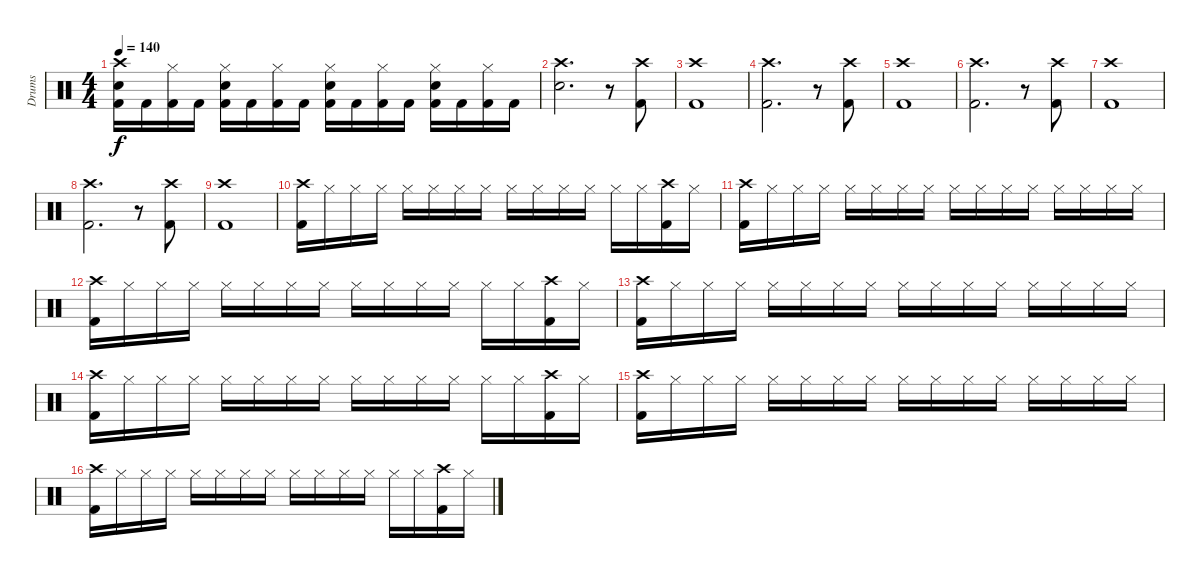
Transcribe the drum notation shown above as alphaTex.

\track ("Drums" "Drums") {instrument percussion}
\staff {score}
\articulation defaults
\ts (4 4)
\tempo 140
\clef neutral
\ks c
("Crash high (hit)" "Snare (hit) 2" "Kick (hit) 2").16{dy f} "Kick (hit) 2".16 ("Hi-Hat (closed)" "Kick (hit) 2").16 "Kick (hit) 2".16 ("Hi-Hat (closed)" "Snare (hit) 2" "Kick (hit) 2").16 "Kick (hit) 2".16 ("Hi-Hat (closed)" "Kick (hit) 2").16 "Kick (hit) 2".16 ("Hi-Hat (closed)" "Snare (hit) 2" "Kick (hit) 2").16 "Kick (hit) 2".16 ("Hi-Hat (closed)" "Kick (hit) 2").16 "Kick (hit) 2".16 ("Hi-Hat (closed)" "Snare (hit) 2" "Kick (hit) 2").16 "Kick (hit) 2".16 ("Hi-Hat (closed)" "Kick (hit) 2").16 "Kick (hit) 2".16 |
("Crash high (hit)" "Snare (hit) 2").2{d} r.8 ("Crash high (hit)" "Kick (hit) 2").8 |
("Crash high (hit)" "Kick (hit) 2").1 |
("Crash high (hit)" "Kick (hit) 2").2{d} r.8 ("Crash high (hit)" "Kick (hit) 2").8 |
("Crash high (hit)" "Kick (hit) 2").1 |
("Crash high (hit)" "Kick (hit) 2").2{d} r.8 ("Crash high (hit)" "Kick (hit) 2").8 |
("Crash high (hit)" "Kick (hit) 2").1 |
("Crash high (hit)" "Kick (hit) 2").2{d} r.8 ("Crash high (hit)" "Kick (hit) 2").8 |
("Crash high (hit)" "Kick (hit) 2").1 |
("Crash high (hit)" "Kick (hit) 2").16 "Hi-Hat (closed)".16 "Hi-Hat (closed)".16 "Hi-Hat (closed)".16 "Hi-Hat (closed)".16 "Hi-Hat (closed)".16 "Hi-Hat (closed)".16 "Hi-Hat (closed)".16 "Hi-Hat (closed)".16 "Hi-Hat (closed)".16 "Hi-Hat (closed)".16 "Hi-Hat (closed)".16 "Hi-Hat (closed)".16 "Hi-Hat (closed)".16 ("Crash high (hit)" "Kick (hit) 2").16 "Hi-Hat (closed)".16 |
("Crash high (hit)" "Kick (hit) 2").16 "Hi-Hat (closed)".16 "Hi-Hat (closed)".16 "Hi-Hat (closed)".16 "Hi-Hat (closed)".16 "Hi-Hat (closed)".16 "Hi-Hat (closed)".16 "Hi-Hat (closed)".16 "Hi-Hat (closed)".16 "Hi-Hat (closed)".16 "Hi-Hat (closed)".16 "Hi-Hat (closed)".16 "Hi-Hat (closed)".16 "Hi-Hat (closed)".16 "Hi-Hat (closed)".16 "Hi-Hat (closed)".16 |
("Crash high (hit)" "Kick (hit) 2").16 "Hi-Hat (closed)".16 "Hi-Hat (closed)".16 "Hi-Hat (closed)".16 "Hi-Hat (closed)".16 "Hi-Hat (closed)".16 "Hi-Hat (closed)".16 "Hi-Hat (closed)".16 "Hi-Hat (closed)".16 "Hi-Hat (closed)".16 "Hi-Hat (closed)".16 "Hi-Hat (closed)".16 "Hi-Hat (closed)".16 "Hi-Hat (closed)".16 ("Crash high (hit)" "Kick (hit) 2").16 "Hi-Hat (closed)".16 |
("Crash high (hit)" "Kick (hit) 2").16 "Hi-Hat (closed)".16 "Hi-Hat (closed)".16 "Hi-Hat (closed)".16 "Hi-Hat (closed)".16 "Hi-Hat (closed)".16 "Hi-Hat (closed)".16 "Hi-Hat (closed)".16 "Hi-Hat (closed)".16 "Hi-Hat (closed)".16 "Hi-Hat (closed)".16 "Hi-Hat (closed)".16 "Hi-Hat (closed)".16 "Hi-Hat (closed)".16 "Hi-Hat (closed)".16 "Hi-Hat (closed)".16 |
("Crash high (hit)" "Kick (hit) 2").16 "Hi-Hat (closed)".16 "Hi-Hat (closed)".16 "Hi-Hat (closed)".16 "Hi-Hat (closed)".16 "Hi-Hat (closed)".16 "Hi-Hat (closed)".16 "Hi-Hat (closed)".16 "Hi-Hat (closed)".16 "Hi-Hat (closed)".16 "Hi-Hat (closed)".16 "Hi-Hat (closed)".16 "Hi-Hat (closed)".16 "Hi-Hat (closed)".16 ("Crash high (hit)" "Kick (hit) 2").16 "Hi-Hat (closed)".16 |
("Crash high (hit)" "Kick (hit) 2").16 "Hi-Hat (closed)".16 "Hi-Hat (closed)".16 "Hi-Hat (closed)".16 "Hi-Hat (closed)".16 "Hi-Hat (closed)".16 "Hi-Hat (closed)".16 "Hi-Hat (closed)".16 "Hi-Hat (closed)".16 "Hi-Hat (closed)".16 "Hi-Hat (closed)".16 "Hi-Hat (closed)".16 "Hi-Hat (closed)".16 "Hi-Hat (closed)".16 "Hi-Hat (closed)".16 "Hi-Hat (closed)".16 |
("Crash high (hit)" "Kick (hit) 2").16 "Hi-Hat (closed)".16 "Hi-Hat (closed)".16 "Hi-Hat (closed)".16 "Hi-Hat (closed)".16 "Hi-Hat (closed)".16 "Hi-Hat (closed)".16 "Hi-Hat (closed)".16 "Hi-Hat (closed)".16 "Hi-Hat (closed)".16 "Hi-Hat (closed)".16 "Hi-Hat (closed)".16 "Hi-Hat (closed)".16 "Hi-Hat (closed)".16 ("Crash high (hit)" "Kick (hit) 2").16 "Hi-Hat (closed)".16
